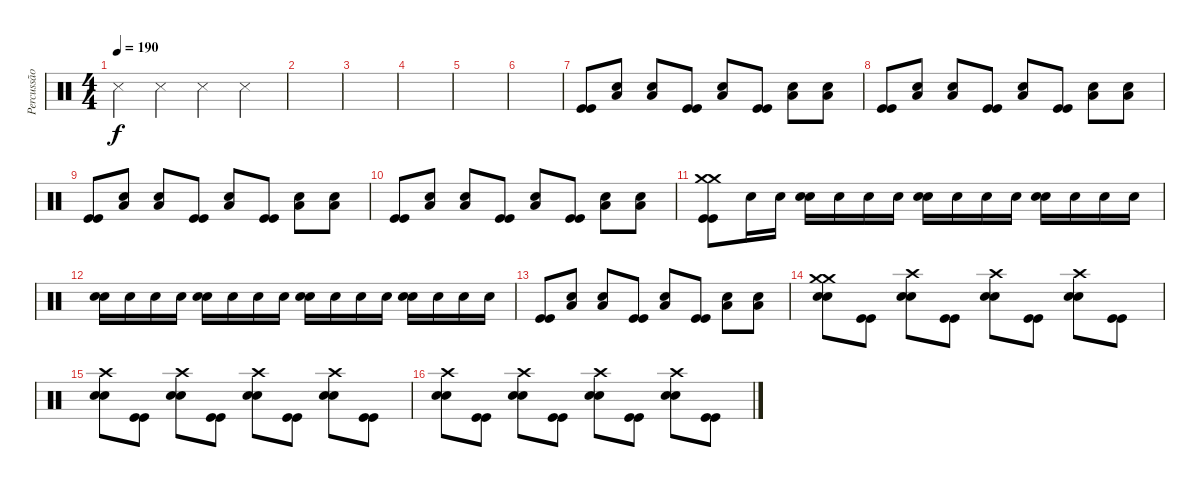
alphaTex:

\track ("Percussão" "Percussão") {instrument percussion}
\staff {score}
\articulation defaults
\ts (4 4)
\tempo 190
\clef neutral
\ks c "Snare (side stick) 3".4{dy f} "Snare (side stick) 3".4 "Snare (side stick) 3".4 "Snare (side stick) 3".4
|
|
|
|
|
|
("Kick (hit)" "Kick (hit)").8 ("Snare (hit) 2" "Low Floor Tom (hit)").8 ("Snare (hit) 2" "Low Floor Tom (hit)").8 ("Kick (hit)" "Kick (hit)").8 ("Snare (hit) 2" "Low Floor Tom (hit)").8 ("Kick (hit)" "Kick (hit)").8 ("Snare (hit) 2" "Low Floor Tom (hit)").8 ("Snare (hit) 2" "Low Floor Tom (hit)").8 |
("Kick (hit)" "Kick (hit)").8 ("Snare (hit) 2" "Low Floor Tom (hit)").8 ("Snare (hit) 2" "Low Floor Tom (hit)").8 ("Kick (hit)" "Kick (hit)").8 ("Snare (hit) 2" "Low Floor Tom (hit)").8 ("Kick (hit)" "Kick (hit)").8 ("Snare (hit) 2" "Low Floor Tom (hit)").8 ("Snare (hit) 2" "Low Floor Tom (hit)").8 |
("Kick (hit)" "Kick (hit)").8 ("Snare (hit) 2" "Low Floor Tom (hit)").8 ("Snare (hit) 2" "Low Floor Tom (hit)").8 ("Kick (hit)" "Kick (hit)").8 ("Snare (hit) 2" "Low Floor Tom (hit)").8 ("Kick (hit)" "Kick (hit)").8 ("Snare (hit) 2" "Low Floor Tom (hit)").8 ("Snare (hit) 2" "Low Floor Tom (hit)").8 |
("Kick (hit)" "Kick (hit)").8 ("Snare (hit) 2" "Low Floor Tom (hit)").8 ("Snare (hit) 2" "Low Floor Tom (hit)").8 ("Kick (hit)" "Kick (hit)").8 ("Snare (hit) 2" "Low Floor Tom (hit)").8 ("Kick (hit)" "Kick (hit)").8 ("Snare (hit) 2" "Low Floor Tom (hit)").8 ("Snare (hit) 2" "Low Floor Tom (hit)").8 |
("Crash medium (hit)" "Crash medium (hit)" "Kick (hit)" "Kick (hit)").8 "Snare (hit) 2".16 "Snare (hit) 2".16 ("Snare (hit) 2" "Snare (hit) 2").16 "Snare (hit) 2".16 "Snare (hit) 2".16 "Snare (hit) 2".16 ("Snare (hit) 2" "Snare (hit) 2").16 "Snare (hit) 2".16 "Snare (hit) 2".16 "Snare (hit) 2".16 ("Snare (hit) 2" "Snare (hit) 2").16 "Snare (hit) 2".16 "Snare (hit) 2".16 "Snare (hit) 2".16 |
("Snare (hit) 2" "Snare (hit) 2").16 "Snare (hit) 2".16 "Snare (hit) 2".16 "Snare (hit) 2".16 ("Snare (hit) 2" "Snare (hit) 2").16 "Snare (hit) 2".16 "Snare (hit) 2".16 "Snare (hit) 2".16 ("Snare (hit) 2" "Snare (hit) 2").16 "Snare (hit) 2".16 "Snare (hit) 2".16 "Snare (hit) 2".16 ("Snare (hit) 2" "Snare (hit) 2").16 "Snare (hit) 2".16 "Snare (hit) 2".16 "Snare (hit) 2".16 |
("Kick (hit)" "Kick (hit)").8 ("Snare (hit) 2" "Low Floor Tom (hit)").8 ("Snare (hit) 2" "Low Floor Tom (hit)").8 ("Kick (hit)" "Kick (hit)").8 ("Snare (hit) 2" "Low Floor Tom (hit)").8 ("Kick (hit)" "Kick (hit)").8 ("Snare (hit) 2" "Low Floor Tom (hit)").8 ("Snare (hit) 2" "Low Floor Tom (hit)").8 |
("Crash medium (hit)" "Crash medium (hit)" "Snare (hit) 2" "Snare (hit) 2").8 ("Kick (hit)" "Kick (hit)").8 ("Crash high (hit)" "Snare (hit) 2" "Snare (hit) 2").8 ("Kick (hit)" "Kick (hit)").8 ("Crash high (hit)" "Snare (hit) 2" "Snare (hit) 2").8 ("Kick (hit)" "Kick (hit)").8 ("Crash high (hit)" "Snare (hit) 2" "Snare (hit) 2").8 ("Kick (hit)" "Kick (hit)").8 |
("Crash high (hit)" "Snare (hit) 2" "Snare (hit) 2").8 ("Kick (hit)" "Kick (hit)").8 ("Crash high (hit)" "Snare (hit) 2" "Snare (hit) 2").8 ("Kick (hit)" "Kick (hit)").8 ("Crash high (hit)" "Snare (hit) 2" "Snare (hit) 2").8 ("Kick (hit)" "Kick (hit)").8 ("Crash high (hit)" "Snare (hit) 2" "Snare (hit) 2").8 ("Kick (hit)" "Kick (hit)").8 |
("Crash high (hit)" "Snare (hit) 2" "Snare (hit) 2").8 ("Kick (hit)" "Kick (hit)").8 ("Crash high (hit)" "Snare (hit) 2" "Snare (hit) 2").8 ("Kick (hit)" "Kick (hit)").8 ("Crash high (hit)" "Snare (hit) 2" "Snare (hit) 2").8 ("Kick (hit)" "Kick (hit)").8 ("Crash high (hit)" "Snare (hit) 2" "Snare (hit) 2").8 ("Kick (hit)" "Kick (hit)").8
